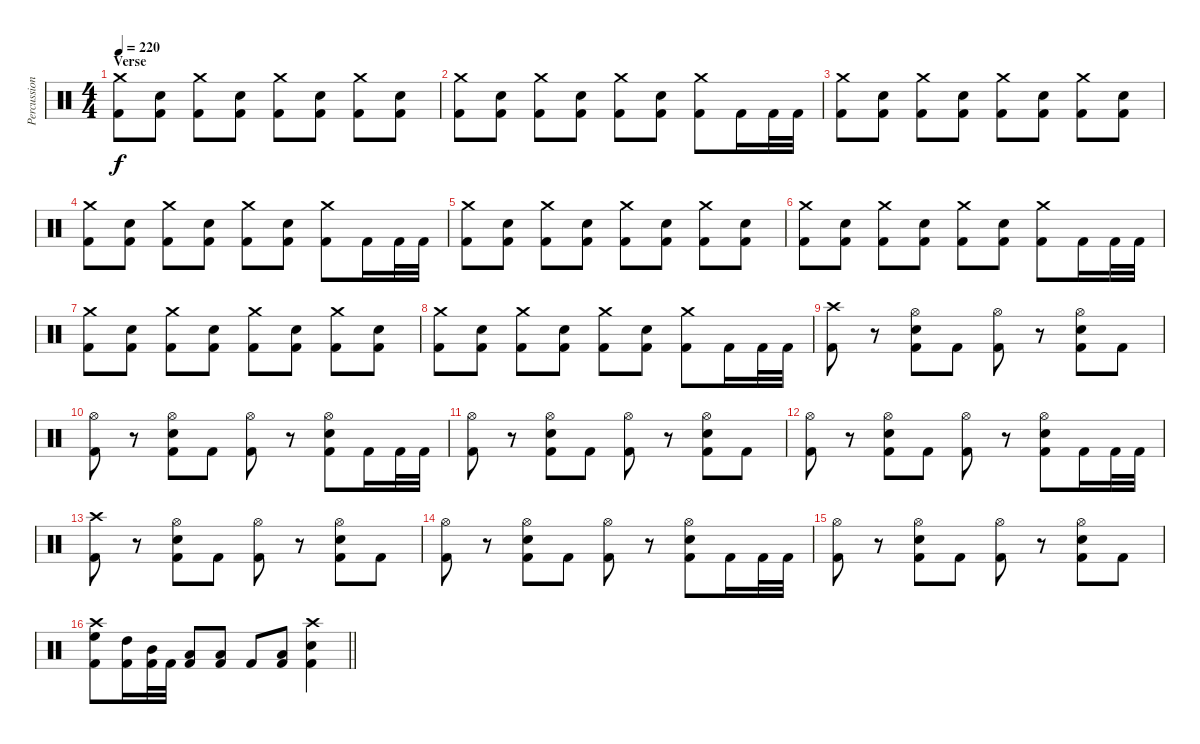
\track ("Percussion" "Percussion") {instrument percussion}
\staff {score}
\articulation defaults
\ts (4 4)
\section ("" "Verse")
\tempo 220
\clef neutral
\ks c
("Crash medium (hit)" "Kick (hit) 2").8{dy f} ("Electric Snare (hit)" "Kick (hit) 2").8 ("Crash medium (hit)" "Kick (hit) 2").8 ("Electric Snare (hit)" "Kick (hit) 2").8 ("Crash medium (hit)" "Kick (hit) 2").8 ("Electric Snare (hit)" "Kick (hit) 2").8 ("Crash medium (hit)" "Kick (hit) 2").8 ("Electric Snare (hit)" "Kick (hit) 2").8 |
("Crash medium (hit)" "Kick (hit) 2").8 ("Electric Snare (hit)" "Kick (hit) 2").8 ("Crash medium (hit)" "Kick (hit) 2").8 ("Electric Snare (hit)" "Kick (hit) 2").8 ("Crash medium (hit)" "Kick (hit) 2").8 ("Electric Snare (hit)" "Kick (hit) 2").8 ("Crash medium (hit)" "Kick (hit) 2").8 "Kick (hit) 2".16 "Kick (hit) 2".32 "Kick (hit) 2".32 |
("Crash medium (hit)" "Kick (hit) 2").8 ("Electric Snare (hit)" "Kick (hit) 2").8 ("Crash medium (hit)" "Kick (hit) 2").8 ("Electric Snare (hit)" "Kick (hit) 2").8 ("Crash medium (hit)" "Kick (hit) 2").8 ("Electric Snare (hit)" "Kick (hit) 2").8 ("Crash medium (hit)" "Kick (hit) 2").8 ("Electric Snare (hit)" "Kick (hit) 2").8 |
("Crash medium (hit)" "Kick (hit) 2").8 ("Electric Snare (hit)" "Kick (hit) 2").8 ("Crash medium (hit)" "Kick (hit) 2").8 ("Electric Snare (hit)" "Kick (hit) 2").8 ("Crash medium (hit)" "Kick (hit) 2").8 ("Electric Snare (hit)" "Kick (hit) 2").8 ("Crash medium (hit)" "Kick (hit) 2").8 "Kick (hit) 2".16 "Kick (hit) 2".32 "Kick (hit) 2".32 |
("Crash medium (hit)" "Kick (hit) 2").8 ("Electric Snare (hit)" "Kick (hit) 2").8 ("Crash medium (hit)" "Kick (hit) 2").8 ("Electric Snare (hit)" "Kick (hit) 2").8 ("Crash medium (hit)" "Kick (hit) 2").8 ("Electric Snare (hit)" "Kick (hit) 2").8 ("Crash medium (hit)" "Kick (hit) 2").8 ("Electric Snare (hit)" "Kick (hit) 2").8 |
("Crash medium (hit)" "Kick (hit) 2").8 ("Electric Snare (hit)" "Kick (hit) 2").8 ("Crash medium (hit)" "Kick (hit) 2").8 ("Electric Snare (hit)" "Kick (hit) 2").8 ("Crash medium (hit)" "Kick (hit) 2").8 ("Electric Snare (hit)" "Kick (hit) 2").8 ("Crash medium (hit)" "Kick (hit) 2").8 "Kick (hit) 2".16 "Kick (hit) 2".32 "Kick (hit) 2".32 |
("Crash medium (hit)" "Kick (hit) 2").8 ("Electric Snare (hit)" "Kick (hit) 2").8 ("Crash medium (hit)" "Kick (hit) 2").8 ("Electric Snare (hit)" "Kick (hit) 2").8 ("Crash medium (hit)" "Kick (hit) 2").8 ("Electric Snare (hit)" "Kick (hit) 2").8 ("Crash medium (hit)" "Kick (hit) 2").8 ("Electric Snare (hit)" "Kick (hit) 2").8 |
("Crash medium (hit)" "Kick (hit) 2").8 ("Electric Snare (hit)" "Kick (hit) 2").8 ("Crash medium (hit)" "Kick (hit) 2").8 ("Electric Snare (hit)" "Kick (hit) 2").8 ("Crash medium (hit)" "Kick (hit) 2").8 ("Electric Snare (hit)" "Kick (hit) 2").8 ("Crash medium (hit)" "Kick (hit) 2").8 "Kick (hit) 2".16 "Kick (hit) 2".32 "Kick (hit) 2".32 |
("Crash high (hit)" "Kick (hit) 2").8 r.8 ("Hi-Hat (open)" "Electric Snare (hit)" "Kick (hit) 2").8 "Kick (hit) 2".8 ("Hi-Hat (open)" "Kick (hit) 2").8 r.8 ("Hi-Hat (open)" "Electric Snare (hit)" "Kick (hit) 2").8 "Kick (hit) 2".8 |
("Hi-Hat (open)" "Kick (hit) 2").8 r.8 ("Hi-Hat (open)" "Electric Snare (hit)" "Kick (hit) 2").8 "Kick (hit) 2".8 ("Hi-Hat (open)" "Kick (hit) 2").8 r.8 ("Hi-Hat (open)" "Electric Snare (hit)" "Kick (hit) 2").8 "Kick (hit) 2".16 "Kick (hit) 2".32 "Kick (hit) 2".32 |
("Hi-Hat (open)" "Kick (hit) 2").8 r.8 ("Hi-Hat (open)" "Electric Snare (hit)" "Kick (hit) 2").8 "Kick (hit) 2".8 ("Hi-Hat (open)" "Kick (hit) 2").8 r.8 ("Hi-Hat (open)" "Electric Snare (hit)" "Kick (hit) 2").8 "Kick (hit) 2".8 |
("Hi-Hat (open)" "Kick (hit) 2").8 r.8 ("Hi-Hat (open)" "Electric Snare (hit)" "Kick (hit) 2").8 "Kick (hit) 2".8 ("Hi-Hat (open)" "Kick (hit) 2").8 r.8 ("Hi-Hat (open)" "Electric Snare (hit)" "Kick (hit) 2").8 "Kick (hit) 2".16 "Kick (hit) 2".32 "Kick (hit) 2".32 |
("Crash high (hit)" "Kick (hit) 2").8 r.8 ("Hi-Hat (open)" "Electric Snare (hit)" "Kick (hit) 2").8 "Kick (hit) 2".8 ("Hi-Hat (open)" "Kick (hit) 2").8 r.8 ("Hi-Hat (open)" "Electric Snare (hit)" "Kick (hit) 2").8 "Kick (hit) 2".8 |
("Hi-Hat (open)" "Kick (hit) 2").8 r.8 ("Hi-Hat (open)" "Electric Snare (hit)" "Kick (hit) 2").8 "Kick (hit) 2".8 ("Hi-Hat (open)" "Kick (hit) 2").8 r.8 ("Hi-Hat (open)" "Electric Snare (hit)" "Kick (hit) 2").8 "Kick (hit) 2".16 "Kick (hit) 2".32 "Kick (hit) 2".32 |
("Hi-Hat (open)" "Kick (hit) 2").8 r.8 ("Hi-Hat (open)" "Electric Snare (hit)" "Kick (hit) 2").8 "Kick (hit) 2".8 ("Hi-Hat (open)" "Kick (hit) 2").8 r.8 ("Hi-Hat (open)" "Electric Snare (hit)" "Kick (hit) 2").8 "Kick (hit) 2".8 |
\barLineRight lightlight
("Crash high (hit)" "High Floor Tom (hit)" "Kick (hit) 2").8 ("High Tom (hit)" "Kick (hit) 2").16 ("Mid Tom (hit)" "Kick (hit) 2").32 "Kick (hit) 2".32 ("Low Tom (hit)" "Kick (hit) 2").8 ("Low Floor Tom (hit)" "Kick (hit) 2").8 "Kick (hit) 2".8 ("Low Floor Tom (hit)" "Kick (hit) 2").8 ("Crash high (hit)" "Electric Snare (hit)" "Kick (hit) 2").4
